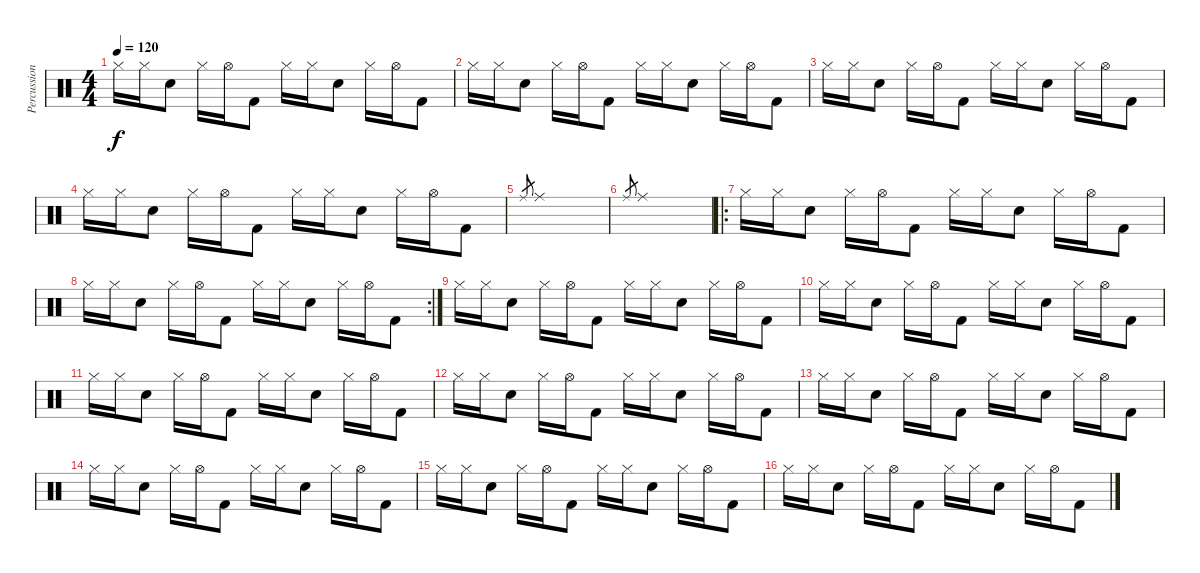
\track ("Percussions" "Percussion") {instrument percussion}
\staff {score}
\articulation defaults
\ts (4 4)
\tempo 120
\clef neutral
\ks c "Hi-Hat (closed)".16{dy f} "Hi-Hat (closed)".16 "Snare (hit) 2".8 "Hi-Hat (closed)".16 "Hi-Hat (open)".16 "Kick (hit) 2".8 "Hi-Hat (closed)".16 "Hi-Hat (closed)".16 "Snare (hit) 2".8 "Hi-Hat (closed)".16 "Hi-Hat (open)".16 "Kick (hit) 2".8
|
"Hi-Hat (closed)".16 "Hi-Hat (closed)".16 "Snare (hit) 2".8 "Hi-Hat (closed)".16 "Hi-Hat (open)".16 "Kick (hit) 2".8 "Hi-Hat (closed)".16 "Hi-Hat (closed)".16 "Snare (hit) 2".8 "Hi-Hat (closed)".16 "Hi-Hat (open)".16 "Kick (hit) 2".8 |
"Hi-Hat (closed)".16 "Hi-Hat (closed)".16 "Snare (hit) 2".8 "Hi-Hat (closed)".16 "Hi-Hat (open)".16 "Kick (hit) 2".8 "Hi-Hat (closed)".16 "Hi-Hat (closed)".16 "Snare (hit) 2".8 "Hi-Hat (closed)".16 "Hi-Hat (open)".16 "Kick (hit) 2".8 |
"Hi-Hat (closed)".16 "Hi-Hat (closed)".16 "Snare (hit) 2".8 "Hi-Hat (closed)".16 "Hi-Hat (open)".16 "Kick (hit) 2".8 "Hi-Hat (closed)".16 "Hi-Hat (closed)".16 "Snare (hit) 2".8 "Hi-Hat (closed)".16 "Hi-Hat (open)".16 "Kick (hit) 2".8 |
"Ride (middle)".8{gr} "Ride (middle)".1 |
"Ride (middle)".8{gr} "Ride (middle)".1 |
\ro "Hi-Hat (closed)".16 "Hi-Hat (closed)".16 "Snare (hit) 2".8 "Hi-Hat (closed)".16 "Hi-Hat (open)".16 "Kick (hit) 2".8 "Hi-Hat (closed)".16 "Hi-Hat (closed)".16 "Snare (hit) 2".8 "Hi-Hat (closed)".16 "Hi-Hat (open)".16 "Kick (hit) 2".8
|
\rc 2 "Hi-Hat (closed)".16 "Hi-Hat (closed)".16 "Snare (hit) 2".8 "Hi-Hat (closed)".16 "Hi-Hat (open)".16 "Kick (hit) 2".8 "Hi-Hat (closed)".16 "Hi-Hat (closed)".16 "Snare (hit) 2".8 "Hi-Hat (closed)".16 "Hi-Hat (open)".16 "Kick (hit) 2".8
|
"Hi-Hat (closed)".16 "Hi-Hat (closed)".16 "Snare (hit) 2".8 "Hi-Hat (closed)".16 "Hi-Hat (open)".16 "Kick (hit) 2".8 "Hi-Hat (closed)".16 "Hi-Hat (closed)".16 "Snare (hit) 2".8 "Hi-Hat (closed)".16 "Hi-Hat (open)".16 "Kick (hit) 2".8 |
"Hi-Hat (closed)".16 "Hi-Hat (closed)".16 "Snare (hit) 2".8 "Hi-Hat (closed)".16 "Hi-Hat (open)".16 "Kick (hit) 2".8 "Hi-Hat (closed)".16 "Hi-Hat (closed)".16 "Snare (hit) 2".8 "Hi-Hat (closed)".16 "Hi-Hat (open)".16 "Kick (hit) 2".8 |
"Hi-Hat (closed)".16 "Hi-Hat (closed)".16 "Snare (hit) 2".8 "Hi-Hat (closed)".16 "Hi-Hat (open)".16 "Kick (hit) 2".8 "Hi-Hat (closed)".16 "Hi-Hat (closed)".16 "Snare (hit) 2".8 "Hi-Hat (closed)".16 "Hi-Hat (open)".16 "Kick (hit) 2".8 |
"Hi-Hat (closed)".16 "Hi-Hat (closed)".16 "Snare (hit) 2".8 "Hi-Hat (closed)".16 "Hi-Hat (open)".16 "Kick (hit) 2".8 "Hi-Hat (closed)".16 "Hi-Hat (closed)".16 "Snare (hit) 2".8 "Hi-Hat (closed)".16 "Hi-Hat (open)".16 "Kick (hit) 2".8 |
"Hi-Hat (closed)".16 "Hi-Hat (closed)".16 "Snare (hit) 2".8 "Hi-Hat (closed)".16 "Hi-Hat (open)".16 "Kick (hit) 2".8 "Hi-Hat (closed)".16 "Hi-Hat (closed)".16 "Snare (hit) 2".8 "Hi-Hat (closed)".16 "Hi-Hat (open)".16 "Kick (hit) 2".8 |
"Hi-Hat (closed)".16 "Hi-Hat (closed)".16 "Snare (hit) 2".8 "Hi-Hat (closed)".16 "Hi-Hat (open)".16 "Kick (hit) 2".8 "Hi-Hat (closed)".16 "Hi-Hat (closed)".16 "Snare (hit) 2".8 "Hi-Hat (closed)".16 "Hi-Hat (open)".16 "Kick (hit) 2".8 |
"Hi-Hat (closed)".16 "Hi-Hat (closed)".16 "Snare (hit) 2".8 "Hi-Hat (closed)".16 "Hi-Hat (open)".16 "Kick (hit) 2".8 "Hi-Hat (closed)".16 "Hi-Hat (closed)".16 "Snare (hit) 2".8 "Hi-Hat (closed)".16 "Hi-Hat (open)".16 "Kick (hit) 2".8 |
"Hi-Hat (closed)".16 "Hi-Hat (closed)".16 "Snare (hit) 2".8 "Hi-Hat (closed)".16 "Hi-Hat (open)".16 "Kick (hit) 2".8 "Hi-Hat (closed)".16 "Hi-Hat (closed)".16 "Snare (hit) 2".8 "Hi-Hat (closed)".16 "Hi-Hat (open)".16 "Kick (hit) 2".8
